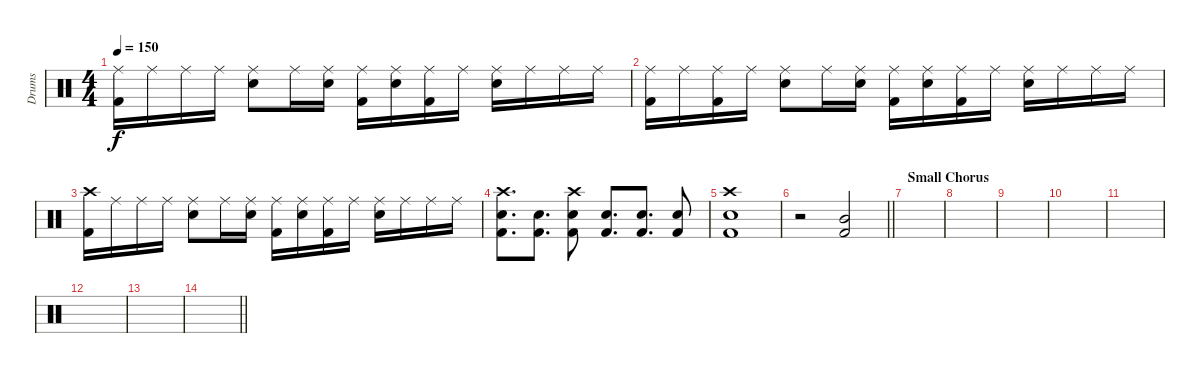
\track ("Drums" "Drums") {instrument percussion}
\staff {score}
\articulation defaults
\ts (4 4)
\tempo 150
\clef neutral
\ks c
("Ride (middle)" "Kick (hit) 2").16{dy f} "Ride (middle)".16 "Ride (middle)".16 "Ride (middle)".16 ("Ride (middle)" "Snare (hit) 2").8 "Ride (middle)".16 ("Ride (middle)" "Snare (hit) 2").16 ("Ride (middle)" "Kick (hit) 2").16 ("Ride (middle)" "Snare (hit) 2").16 ("Ride (middle)" "Kick (hit) 2").16 "Ride (middle)".16 ("Ride (middle)" "Snare (hit) 2").16 "Ride (middle)".16 "Ride (middle)".16 "Ride (middle)".16 |
("Ride (middle)" "Kick (hit) 2").16 "Ride (middle)".16 ("Ride (middle)" "Kick (hit) 2").16 "Ride (middle)".16 ("Ride (middle)" "Snare (hit) 2").8 "Ride (middle)".16 ("Ride (middle)" "Snare (hit) 2").16 ("Ride (middle)" "Kick (hit) 2").16 ("Ride (middle)" "Snare (hit) 2").16 ("Ride (middle)" "Kick (hit) 2").16 "Ride (middle)".16 ("Ride (middle)" "Snare (hit) 2").16 "Ride (middle)".16 "Ride (middle)".16 "Ride (middle)".16 |
("Crash high (hit)" "Kick (hit) 2").16 "Ride (middle)".16 "Ride (middle)".16 "Ride (middle)".16 ("Ride (middle)" "Snare (hit) 2").8 "Ride (middle)".16 ("Ride (middle)" "Snare (hit) 2").16 ("Ride (middle)" "Kick (hit) 2").16 ("Ride (middle)" "Snare (hit) 2").16 ("Ride (middle)" "Kick (hit) 2").16 "Ride (middle)".16 ("Ride (middle)" "Snare (hit) 2").16 "Ride (middle)".16 "Ride (middle)".16 "Ride (middle)".16 |
("Crash high (hit)" "Snare (hit) 2" "Kick (hit) 2").8{d} ("Snare (hit) 2" "Kick (hit) 2").8{d} ("Crash high (hit)" "Snare (hit) 2" "Kick (hit) 2").8 ("Snare (hit) 2" "Kick (hit) 2").8{d} ("Snare (hit) 2" "Kick (hit) 2").8{d} ("Snare (hit) 2" "Kick (hit) 2").8 |
("Crash high (hit)" "Snare (hit) 2" "Kick (hit) 2").1 |
\barLineRight lightlight
r.2 ("Mid Tom (hit)" "Kick (hit) 2").2 |
\section ("" "Small Chorus")
|
|
|
|
|
|
|
\barLineRight lightlight
